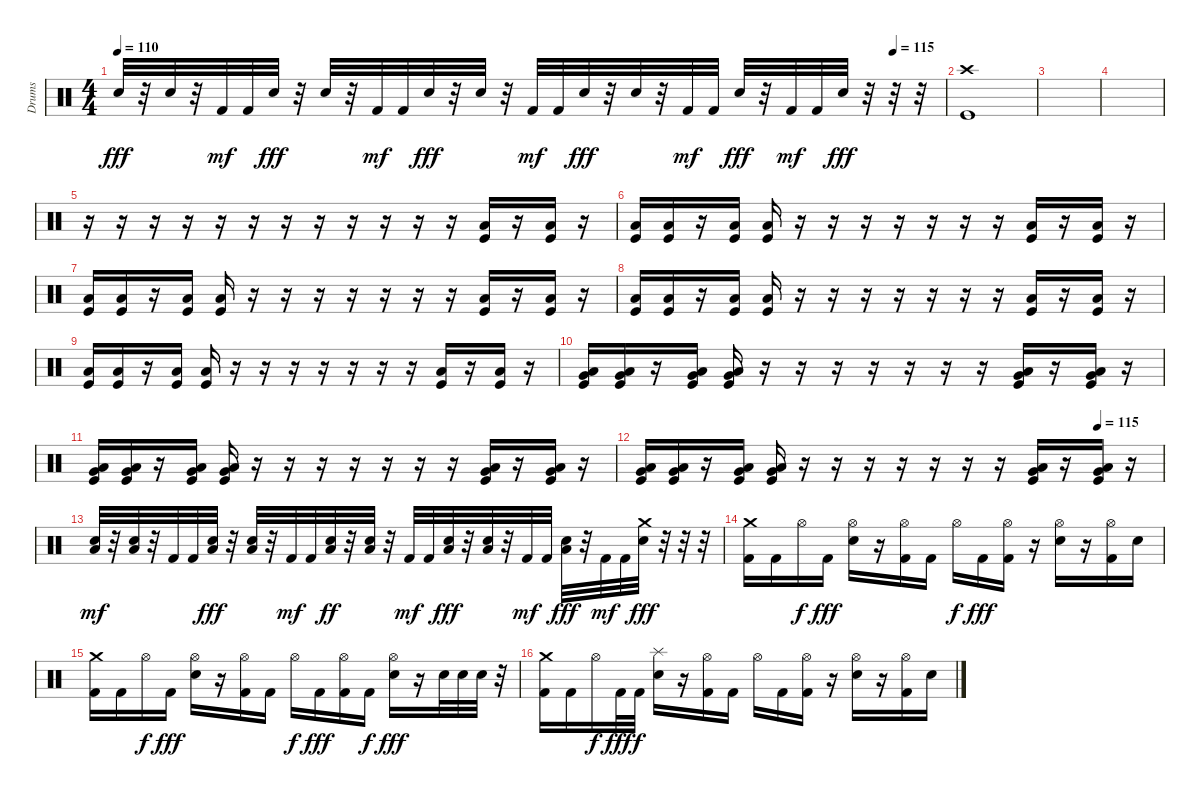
\track ("Drums" "Drums") {instrument percussion}
\staff {score}
\articulation defaults
\ts (4 4)
\tempo 110
\tempo (115 0.9375)
\clef neutral
\ks c "Electric Snare (hit)".32{dy fff}
r.32 "Electric Snare (hit)".32 r.32 "Kick (hit) 2".32{dy mf} "Kick (hit) 2".32 "Electric Snare (hit)".32{dy fff} r.32 "Electric Snare (hit)".32 r.32 "Kick (hit) 2".32{dy mf} "Kick (hit) 2".32 "Electric Snare (hit)".32{dy fff} r.32 "Electric Snare (hit)".32 r.32 "Kick (hit) 2".32{dy mf} "Kick (hit) 2".32 "Electric Snare (hit)".32{dy fff} r.32 "Electric Snare (hit)".32 r.32 "Kick (hit) 2".32{dy mf} "Kick (hit) 2".32 "Electric Snare (hit)".32{dy fff} r.32 "Kick (hit) 2".32{dy mf} "Kick (hit) 2".32 "Electric Snare (hit)".32{dy fff} r.32 r.32 r.32 |
("Kick (hit)" "Crash high (hit)").1 |
|
|
r.16 r.16 r.16 r.16 r.16 r.16 r.16 r.16 r.16 r.16 r.16 r.16 ("Low Floor Tom (hit)" "Kick (hit)").16 r.16 ("Low Floor Tom (hit)" "Kick (hit)").16 r.16 |
("Kick (hit)" "Low Floor Tom (hit)").16 ("Kick (hit)" "Low Floor Tom (hit)").16 r.16 ("Kick (hit)" "Low Floor Tom (hit)").16 ("Kick (hit)" "Low Floor Tom (hit)").16 r.16 r.16 r.16 r.16 r.16 r.16 r.16 ("Low Floor Tom (hit)" "Kick (hit)").16 r.16 ("Low Floor Tom (hit)" "Kick (hit)").16 r.16 |
("Kick (hit)" "Low Floor Tom (hit)").16 ("Kick (hit)" "Low Floor Tom (hit)").16 r.16 ("Kick (hit)" "Low Floor Tom (hit)").16 ("Kick (hit)" "Low Floor Tom (hit)").16 r.16 r.16 r.16 r.16 r.16 r.16 r.16 ("Low Floor Tom (hit)" "Kick (hit)").16 r.16 ("Low Floor Tom (hit)" "Kick (hit)").16 r.16 |
("Kick (hit)" "Low Floor Tom (hit)").16 ("Kick (hit)" "Low Floor Tom (hit)").16 r.16 ("Kick (hit)" "Low Floor Tom (hit)").16 ("Kick (hit)" "Low Floor Tom (hit)").16 r.16 r.16 r.16 r.16 r.16 r.16 r.16 ("Low Floor Tom (hit)" "Kick (hit)").16 r.16 ("Low Floor Tom (hit)" "Kick (hit)").16 r.16 |
("Kick (hit)" "Low Floor Tom (hit)").16 ("Kick (hit)" "Low Floor Tom (hit)").16 r.16 ("Kick (hit)" "Low Floor Tom (hit)").16 ("Kick (hit)" "Low Floor Tom (hit)").16 r.16 r.16 r.16 r.16 r.16 r.16 r.16 ("Low Floor Tom (hit)" "Kick (hit)").16 r.16 ("Low Floor Tom (hit)" "Kick (hit)").16 r.16 |
("Kick (hit)" "Low Floor Tom (hit)" "Very Low Tom (hit)").16 ("Kick (hit)" "Low Floor Tom (hit)" "Very Low Tom (hit)").16 r.16 ("Kick (hit)" "Low Floor Tom (hit)" "Very Low Tom (hit)").16 ("Kick (hit)" "Low Floor Tom (hit)" "Very Low Tom (hit)").16 r.16 r.16 r.16 r.16 r.16 r.16 r.16 ("Low Floor Tom (hit)" "Kick (hit)" "Very Low Tom (hit)").16 r.16 ("Low Floor Tom (hit)" "Kick (hit)" "Very Low Tom (hit)").16 r.16 |
("Kick (hit)" "Low Floor Tom (hit)" "Very Low Tom (hit)").16 ("Kick (hit)" "Low Floor Tom (hit)" "Very Low Tom (hit)").16 r.16 ("Kick (hit)" "Low Floor Tom (hit)" "Very Low Tom (hit)").16 ("Kick (hit)" "Low Floor Tom (hit)" "Very Low Tom (hit)").16 r.16 r.16 r.16 r.16 r.16 r.16 r.16 ("Low Floor Tom (hit)" "Kick (hit)" "Very Low Tom (hit)").16 r.16 ("Low Floor Tom (hit)" "Kick (hit)" "Very Low Tom (hit)").16 r.16 |
\tempo (115 0.875)
("Kick (hit)" "Low Floor Tom (hit)" "Very Low Tom (hit)").16 ("Kick (hit)" "Low Floor Tom (hit)" "Very Low Tom (hit)").16 r.16 ("Kick (hit)" "Low Floor Tom (hit)" "Very Low Tom (hit)").16 ("Kick (hit)" "Low Floor Tom (hit)" "Very Low Tom (hit)").16 r.16 r.16 r.16 r.16 r.16 r.16 r.16 ("Low Floor Tom (hit)" "Kick (hit)" "Very Low Tom (hit)").16 r.16 ("Low Floor Tom (hit)" "Kick (hit)" "Very Low Tom (hit)").16 r.16 |
("Low Floor Tom (hit)" "Electric Snare (hit)").32{dy mf} r.32 ("Low Floor Tom (hit)" "Electric Snare (hit)").32 r.32 "Kick (hit) 2".32 "Kick (hit) 2".32 ("Low Floor Tom (hit)" "Electric Snare (hit)").32{dy fff} r.32 ("Low Floor Tom (hit)" "Electric Snare (hit)").32 r.32 "Kick (hit) 2".32{dy mf} "Kick (hit) 2".32 ("Low Floor Tom (hit)" "Electric Snare (hit)").32{dy ff} r.32 ("Low Floor Tom (hit)" "Electric Snare (hit)").32 r.32 "Kick (hit) 2".32{dy mf} "Kick (hit) 2".32 ("Low Floor Tom (hit)" "Electric Snare (hit)").32{dy fff} r.32 ("Low Floor Tom (hit)" "Electric Snare (hit)").32 r.32 "Kick (hit) 2".32{dy mf} "Kick (hit) 2".32 ("Low Floor Tom (hit)" "Electric Snare (hit)").32{dy fff} r.32 "Kick (hit) 2".32{dy mf} "Kick (hit) 2".32 ("Crash medium (hit)" "Electric Snare (hit)").32{dy fff} r.32 r.32 r.32 |
("Crash medium (hit)" "Kick (hit) 2").16 "Kick (hit) 2".16 "Hi-Hat (open)".16{dy f} "Kick (hit) 2".16{dy fff} ("Hi-Hat (open)" "Electric Snare (hit)").16 r.16 ("Hi-Hat (open)" "Kick (hit) 2").16 "Kick (hit) 2".16 "Hi-Hat (open)".16{dy f} "Kick (hit) 2".16{dy fff} ("Hi-Hat (open)" "Kick (hit) 2").16 r.16 ("Hi-Hat (open)" "Electric Snare (hit)").16 r.16 ("Hi-Hat (open)" "Kick (hit) 2").16 "Electric Snare (hit)".16 |
("Crash medium (hit)" "Kick (hit) 2").16 "Kick (hit) 2".16 "Hi-Hat (open)".16{dy f} "Kick (hit) 2".16{dy fff} ("Hi-Hat (open)" "Electric Snare (hit)").16 r.16 ("Hi-Hat (open)" "Kick (hit) 2").16 "Kick (hit) 2".16 "Hi-Hat (open)".16{dy f} "Kick (hit) 2".16{dy fff} ("Hi-Hat (open)" "Kick (hit) 2").16 "Kick (hit) 2".16{dy f} ("Hi-Hat (open)" "Electric Snare (hit)").16{dy fff} r.16 "Electric Snare (hit)".32 "Electric Snare (hit)".32 "Electric Snare (hit)".32 r.32 |
("Crash medium (hit)" "Kick (hit) 2").16 "Kick (hit) 2".16 "Hi-Hat (open)".16{dy f} "Kick (hit) 2".32{dy fff} "Kick (hit) 2".32{dy f} ("Splash (hit)" "Electric Snare (hit)").16 r.16 ("Hi-Hat (open)" "Kick (hit) 2").16 "Kick (hit) 2".16 "Hi-Hat (open)".16 "Kick (hit) 2".16 ("Hi-Hat (open)" "Kick (hit) 2").16 r.16 ("Hi-Hat (open)" "Electric Snare (hit)").16 r.16 ("Hi-Hat (open)" "Kick (hit) 2").16 "Electric Snare (hit)".16
